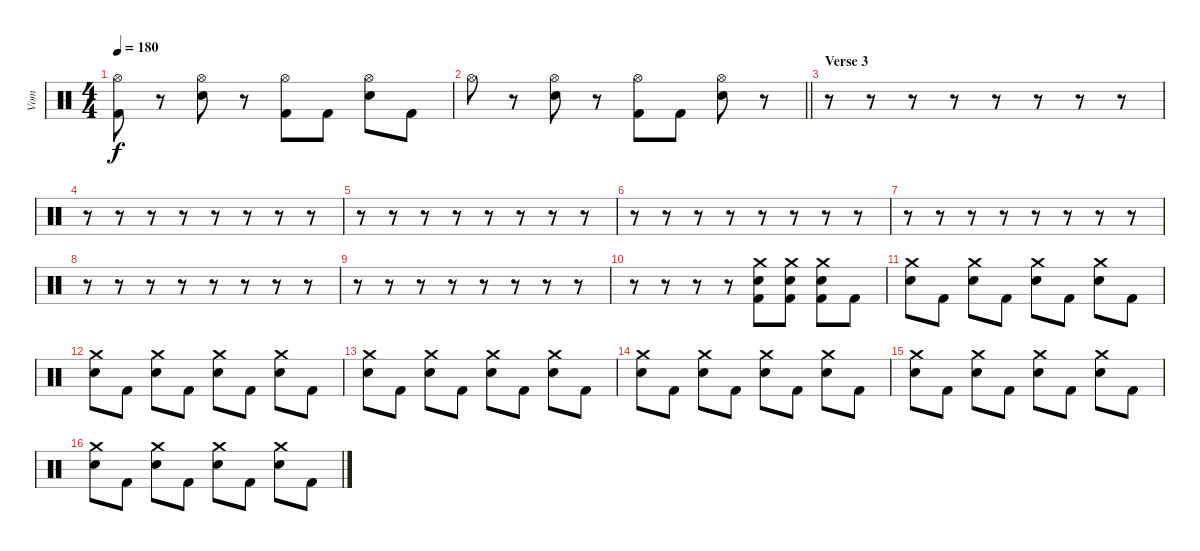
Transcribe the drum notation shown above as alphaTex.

\track ("Vom" "Vom") {instrument percussion}
\staff {score}
\articulation defaults
\ts (4 4)
\tempo 180
\clef neutral
\ks c
("Hi-Hat (open)" "Kick (hit) 2").8{dy f} r.8 ("Hi-Hat (open)" "Snare (hit) 2").8 r.8 ("Hi-Hat (open)" "Kick (hit) 2").8 "Kick (hit) 2".8 ("Hi-Hat (open)" "Snare (hit) 2").8 "Kick (hit) 2".8 |
\barLineRight lightlight "Hi-Hat (open)".8
r.8 ("Hi-Hat (open)" "Snare (hit) 2").8 r.8 ("Hi-Hat (open)" "Kick (hit) 2").8 "Kick (hit) 2".8 ("Hi-Hat (open)" "Snare (hit) 2").8 r.8 |
\section ("" "Verse 3")
r.8 r.8 r.8 r.8 r.8 r.8 r.8 r.8 |
r.8 r.8 r.8 r.8 r.8 r.8 r.8 r.8 |
r.8 r.8 r.8 r.8 r.8 r.8 r.8 r.8 |
r.8 r.8 r.8 r.8 r.8 r.8 r.8 r.8 |
r.8 r.8 r.8 r.8 r.8 r.8 r.8 r.8 |
r.8 r.8 r.8 r.8 r.8 r.8 r.8 r.8 |
r.8 r.8 r.8 r.8 r.8 r.8 r.8 r.8 |
r.8 r.8 r.8 r.8 ("Crash medium (hit)" "Snare (hit) 2" "Kick (hit) 2").8 ("Crash medium (hit)" "Snare (hit) 2" "Kick (hit) 2").8 ("Crash medium (hit)" "Snare (hit) 2" "Kick (hit) 2").8 "Kick (hit) 2".8 |
("Crash medium (hit)" "Snare (hit) 2").8 "Kick (hit) 2".8 ("Crash medium (hit)" "Snare (hit) 2").8 "Kick (hit) 2".8 ("Crash medium (hit)" "Snare (hit) 2").8 "Kick (hit) 2".8 ("Crash medium (hit)" "Snare (hit) 2").8 "Kick (hit) 2".8 |
("Crash medium (hit)" "Snare (hit) 2").8 "Kick (hit) 2".8 ("Crash medium (hit)" "Snare (hit) 2").8 "Kick (hit) 2".8 ("Crash medium (hit)" "Snare (hit) 2").8 "Kick (hit) 2".8 ("Crash medium (hit)" "Snare (hit) 2").8 "Kick (hit) 2".8 |
("Crash medium (hit)" "Snare (hit) 2").8 "Kick (hit) 2".8 ("Crash medium (hit)" "Snare (hit) 2").8 "Kick (hit) 2".8 ("Crash medium (hit)" "Snare (hit) 2").8 "Kick (hit) 2".8 ("Crash medium (hit)" "Snare (hit) 2").8 "Kick (hit) 2".8 |
("Crash medium (hit)" "Snare (hit) 2").8 "Kick (hit) 2".8 ("Crash medium (hit)" "Snare (hit) 2").8 "Kick (hit) 2".8 ("Crash medium (hit)" "Snare (hit) 2").8 "Kick (hit) 2".8 ("Crash medium (hit)" "Snare (hit) 2").8 "Kick (hit) 2".8 |
("Crash medium (hit)" "Snare (hit) 2").8 "Kick (hit) 2".8 ("Crash medium (hit)" "Snare (hit) 2").8 "Kick (hit) 2".8 ("Crash medium (hit)" "Snare (hit) 2").8 "Kick (hit) 2".8 ("Crash medium (hit)" "Snare (hit) 2").8 "Kick (hit) 2".8 |
("Crash medium (hit)" "Snare (hit) 2").8 "Kick (hit) 2".8 ("Crash medium (hit)" "Snare (hit) 2").8 "Kick (hit) 2".8 ("Crash medium (hit)" "Snare (hit) 2").8 "Kick (hit) 2".8 ("Crash medium (hit)" "Snare (hit) 2").8 "Kick (hit) 2".8
